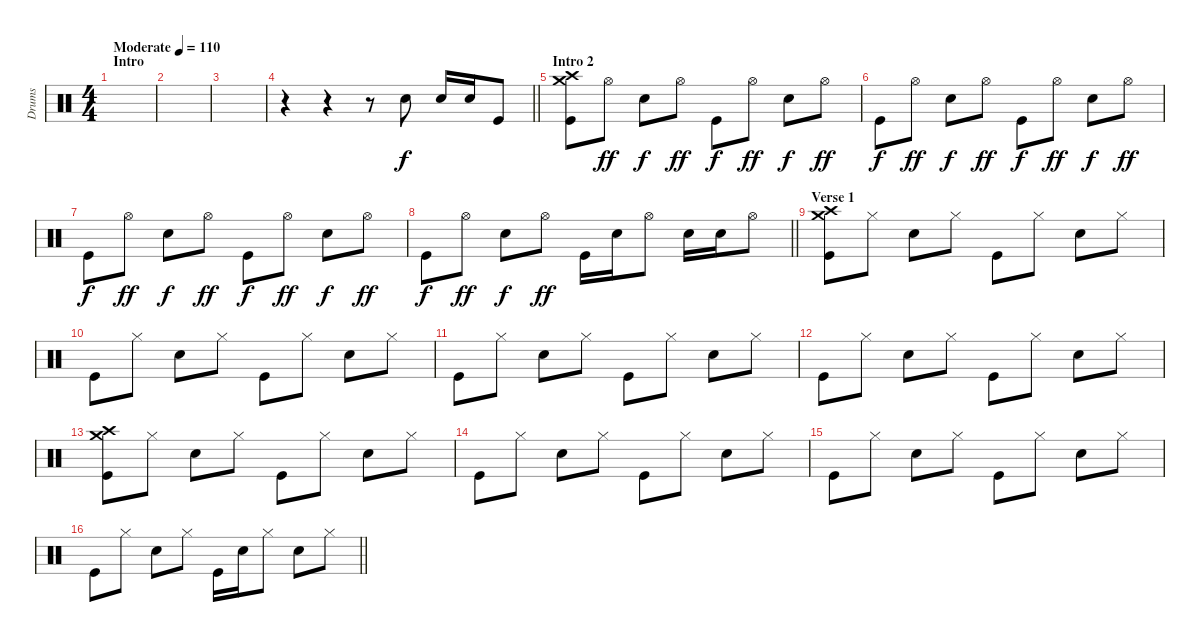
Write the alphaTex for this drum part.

\track ("Drums" "Drums") {instrument percussion}
\staff {score}
\articulation defaults
\ts (4 4)
\section ("" "Intro")
\tempo (110 "Moderate")
\clef neutral
\ks c
|
|
|
\barLineRight lightlight
r.4 r.4 r.8 "Snare (hit) 2".8 "Snare (hit) 2".16 "Snare (hit) 2".16 "Kick (hit)".8 |
\section ("" "Intro 2")
("Crash high (hit)" "Crash medium (hit)" "Kick (hit)").8 "Hi-Hat (open)".8{dy ff} "Snare (hit) 2".8{dy f} "Hi-Hat (open)".8{dy ff} "Kick (hit)".8{dy f} "Hi-Hat (open)".8{dy ff} "Snare (hit) 2".8{dy f} "Hi-Hat (open)".8{dy ff} |
"Kick (hit)".8{dy f} "Hi-Hat (open)".8{dy ff} "Snare (hit) 2".8{dy f} "Hi-Hat (open)".8{dy ff} "Kick (hit)".8{dy f} "Hi-Hat (open)".8{dy ff} "Snare (hit) 2".8{dy f} "Hi-Hat (open)".8{dy ff} |
"Kick (hit)".8{dy f} "Hi-Hat (open)".8{dy ff} "Snare (hit) 2".8{dy f} "Hi-Hat (open)".8{dy ff} "Kick (hit)".8{dy f} "Hi-Hat (open)".8{dy ff} "Snare (hit) 2".8{dy f} "Hi-Hat (open)".8{dy ff} |
\barLineRight lightlight "Kick (hit)".8{dy f} "Hi-Hat (open)".8{dy ff} "Snare (hit) 2".8{dy f} "Hi-Hat (open)".8{dy ff} "Kick (hit)".16 "Snare (hit) 2".16 "Hi-Hat (open)".8 "Snare (hit) 2".16 "Snare (hit) 2".16 "Hi-Hat (open)".8
|
\section ("" "Verse 1")
("Crash high (hit)" "Crash medium (hit)" "Kick (hit)").8 "Hi-Hat (closed)".8 "Snare (hit) 2".8 "Hi-Hat (closed)".8 "Kick (hit)".8 "Hi-Hat (closed)".8 "Snare (hit) 2".8 "Hi-Hat (closed)".8 |
"Kick (hit)".8 "Hi-Hat (closed)".8 "Snare (hit) 2".8 "Hi-Hat (closed)".8 "Kick (hit)".8 "Hi-Hat (closed)".8 "Snare (hit) 2".8 "Hi-Hat (closed)".8 |
"Kick (hit)".8 "Hi-Hat (closed)".8 "Snare (hit) 2".8 "Hi-Hat (closed)".8 "Kick (hit)".8 "Hi-Hat (closed)".8 "Snare (hit) 2".8 "Hi-Hat (closed)".8 |
"Kick (hit)".8 "Hi-Hat (closed)".8 "Snare (hit) 2".8 "Hi-Hat (closed)".8 "Kick (hit)".8 "Hi-Hat (closed)".8 "Snare (hit) 2".8 "Hi-Hat (closed)".8 |
("Crash high (hit)" "Crash medium (hit)" "Kick (hit)").8 "Hi-Hat (closed)".8 "Snare (hit) 2".8 "Hi-Hat (closed)".8 "Kick (hit)".8 "Hi-Hat (closed)".8 "Snare (hit) 2".8 "Hi-Hat (closed)".8 |
"Kick (hit)".8 "Hi-Hat (closed)".8 "Snare (hit) 2".8 "Hi-Hat (closed)".8 "Kick (hit)".8 "Hi-Hat (closed)".8 "Snare (hit) 2".8 "Hi-Hat (closed)".8 |
"Kick (hit)".8 "Hi-Hat (closed)".8 "Snare (hit) 2".8 "Hi-Hat (closed)".8 "Kick (hit)".8 "Hi-Hat (closed)".8 "Snare (hit) 2".8 "Hi-Hat (closed)".8 |
\barLineRight lightlight "Kick (hit)".8 "Hi-Hat (closed)".8 "Snare (hit) 2".8 "Hi-Hat (closed)".8 "Kick (hit)".16 "Snare (hit) 2".16 "Hi-Hat (closed)".8 "Snare (hit) 2".8 "Hi-Hat (closed)".8
